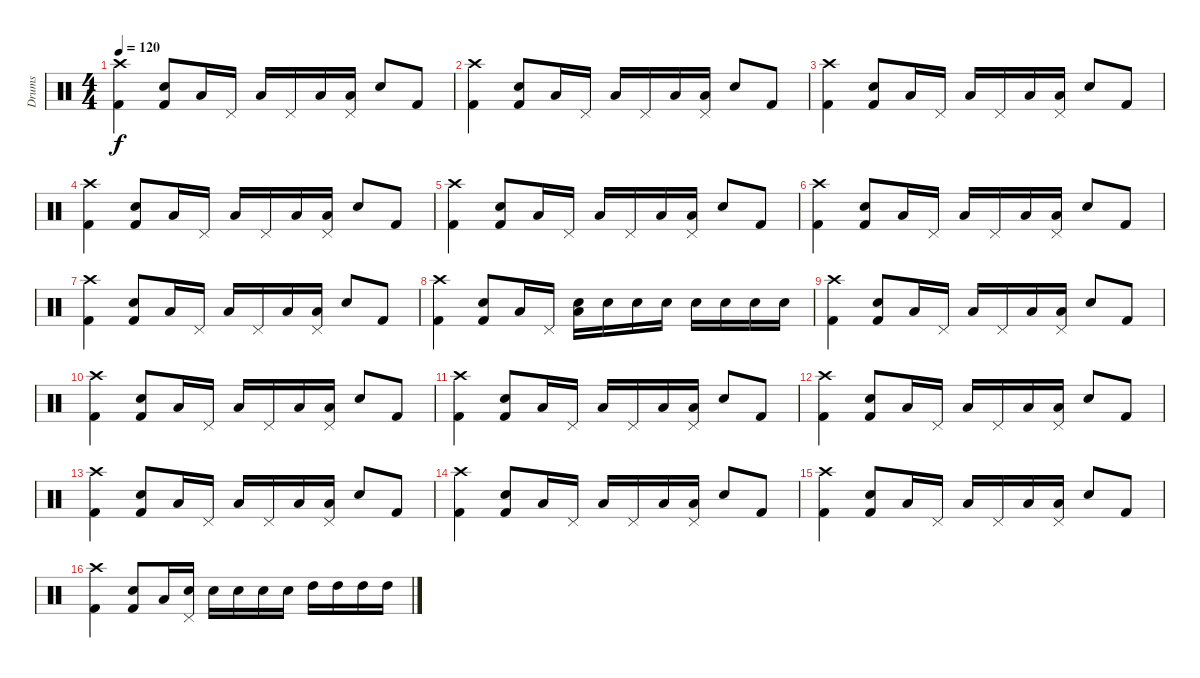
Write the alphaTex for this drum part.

\track ("Drums" "Drums") {instrument percussion}
\staff {score}
\articulation defaults
\ts (4 4)
\tempo 120
\clef neutral
\ks c
("Crash high (hit)" "Kick (hit) 2").4{dy f} ("Electric Snare (hit)" "Kick (hit) 2").8 "Low Tom (hit)".16 "Pedal Hi-Hat (hit)".16 "Low Tom (hit)".16 "Pedal Hi-Hat (hit)".16 "Low Tom (hit)".16 ("Pedal Hi-Hat (hit)" "Low Tom (hit)").16 "Electric Snare (hit)".8 "Kick (hit) 2".8 |
("Crash high (hit)" "Kick (hit) 2").4 ("Electric Snare (hit)" "Kick (hit) 2").8 "Low Tom (hit)".16 "Pedal Hi-Hat (hit)".16 "Low Tom (hit)".16 "Pedal Hi-Hat (hit)".16 "Low Tom (hit)".16 ("Pedal Hi-Hat (hit)" "Low Tom (hit)").16 "Electric Snare (hit)".8 "Kick (hit) 2".8 |
("Crash high (hit)" "Kick (hit) 2").4 ("Electric Snare (hit)" "Kick (hit) 2").8 "Low Tom (hit)".16 "Pedal Hi-Hat (hit)".16 "Low Tom (hit)".16 "Pedal Hi-Hat (hit)".16 "Low Tom (hit)".16 ("Pedal Hi-Hat (hit)" "Low Tom (hit)").16 "Electric Snare (hit)".8 "Kick (hit) 2".8 |
("Crash high (hit)" "Kick (hit) 2").4 ("Electric Snare (hit)" "Kick (hit) 2").8 "Low Tom (hit)".16 "Pedal Hi-Hat (hit)".16 "Low Tom (hit)".16 "Pedal Hi-Hat (hit)".16 "Low Tom (hit)".16 ("Pedal Hi-Hat (hit)" "Low Tom (hit)").16 "Electric Snare (hit)".8 "Kick (hit) 2".8 |
("Crash high (hit)" "Kick (hit) 2").4 ("Electric Snare (hit)" "Kick (hit) 2").8 "Low Tom (hit)".16 "Pedal Hi-Hat (hit)".16 "Low Tom (hit)".16 "Pedal Hi-Hat (hit)".16 "Low Tom (hit)".16 ("Pedal Hi-Hat (hit)" "Low Tom (hit)").16 "Electric Snare (hit)".8 "Kick (hit) 2".8 |
("Crash high (hit)" "Kick (hit) 2").4 ("Electric Snare (hit)" "Kick (hit) 2").8 "Low Tom (hit)".16 "Pedal Hi-Hat (hit)".16 "Low Tom (hit)".16 "Pedal Hi-Hat (hit)".16 "Low Tom (hit)".16 ("Pedal Hi-Hat (hit)" "Low Tom (hit)").16 "Electric Snare (hit)".8 "Kick (hit) 2".8 |
("Crash high (hit)" "Kick (hit) 2").4 ("Electric Snare (hit)" "Kick (hit) 2").8 "Low Tom (hit)".16 "Pedal Hi-Hat (hit)".16 "Low Tom (hit)".16 "Pedal Hi-Hat (hit)".16 "Low Tom (hit)".16 ("Pedal Hi-Hat (hit)" "Low Tom (hit)").16 "Electric Snare (hit)".8 "Kick (hit) 2".8 |
("Crash high (hit)" "Kick (hit) 2").4 ("Electric Snare (hit)" "Kick (hit) 2").8 "Low Tom (hit)".16 "Pedal Hi-Hat (hit)".16 ("Low Tom (hit)" "Electric Snare (hit)").16 "Electric Snare (hit)".16 "Electric Snare (hit)".16 "Electric Snare (hit)".16 "Electric Snare (hit)".16 "Electric Snare (hit)".16 "Electric Snare (hit)".16 "Electric Snare (hit)".16 |
("Crash high (hit)" "Kick (hit) 2").4 ("Electric Snare (hit)" "Kick (hit) 2").8 "Low Tom (hit)".16 "Pedal Hi-Hat (hit)".16 "Low Tom (hit)".16 "Pedal Hi-Hat (hit)".16 "Low Tom (hit)".16 ("Pedal Hi-Hat (hit)" "Low Tom (hit)").16 "Electric Snare (hit)".8 "Kick (hit) 2".8 |
("Crash high (hit)" "Kick (hit) 2").4 ("Electric Snare (hit)" "Kick (hit) 2").8 "Low Tom (hit)".16 "Pedal Hi-Hat (hit)".16 "Low Tom (hit)".16 "Pedal Hi-Hat (hit)".16 "Low Tom (hit)".16 ("Pedal Hi-Hat (hit)" "Low Tom (hit)").16 "Electric Snare (hit)".8 "Kick (hit) 2".8 |
("Crash high (hit)" "Kick (hit) 2").4 ("Electric Snare (hit)" "Kick (hit) 2").8 "Low Tom (hit)".16 "Pedal Hi-Hat (hit)".16 "Low Tom (hit)".16 "Pedal Hi-Hat (hit)".16 "Low Tom (hit)".16 ("Pedal Hi-Hat (hit)" "Low Tom (hit)").16 "Electric Snare (hit)".8 "Kick (hit) 2".8 |
("Crash high (hit)" "Kick (hit) 2").4 ("Electric Snare (hit)" "Kick (hit) 2").8 "Low Tom (hit)".16 "Pedal Hi-Hat (hit)".16 "Low Tom (hit)".16 "Pedal Hi-Hat (hit)".16 "Low Tom (hit)".16 ("Pedal Hi-Hat (hit)" "Low Tom (hit)").16 "Electric Snare (hit)".8 "Kick (hit) 2".8 |
("Crash high (hit)" "Kick (hit) 2").4 ("Electric Snare (hit)" "Kick (hit) 2").8 "Low Tom (hit)".16 "Pedal Hi-Hat (hit)".16 "Low Tom (hit)".16 "Pedal Hi-Hat (hit)".16 "Low Tom (hit)".16 ("Pedal Hi-Hat (hit)" "Low Tom (hit)").16 "Electric Snare (hit)".8 "Kick (hit) 2".8 |
("Crash high (hit)" "Kick (hit) 2").4 ("Electric Snare (hit)" "Kick (hit) 2").8 "Low Tom (hit)".16 "Pedal Hi-Hat (hit)".16 "Low Tom (hit)".16 "Pedal Hi-Hat (hit)".16 "Low Tom (hit)".16 ("Pedal Hi-Hat (hit)" "Low Tom (hit)").16 "Electric Snare (hit)".8 "Kick (hit) 2".8 |
("Crash high (hit)" "Kick (hit) 2").4 ("Electric Snare (hit)" "Kick (hit) 2").8 "Low Tom (hit)".16 "Pedal Hi-Hat (hit)".16 "Low Tom (hit)".16 "Pedal Hi-Hat (hit)".16 "Low Tom (hit)".16 ("Pedal Hi-Hat (hit)" "Low Tom (hit)").16 "Electric Snare (hit)".8 "Kick (hit) 2".8 |
("Crash high (hit)" "Kick (hit) 2").4 ("Electric Snare (hit)" "Kick (hit) 2").8 "Low Tom (hit)".16 ("Pedal Hi-Hat (hit)" "Electric Snare (hit)").16 "Electric Snare (hit)".16 "Electric Snare (hit)".16 "Electric Snare (hit)".16 "Electric Snare (hit)".16 "High Tom (hit)".16 "High Tom (hit)".16 "High Tom (hit)".16 "High Tom (hit)".16
